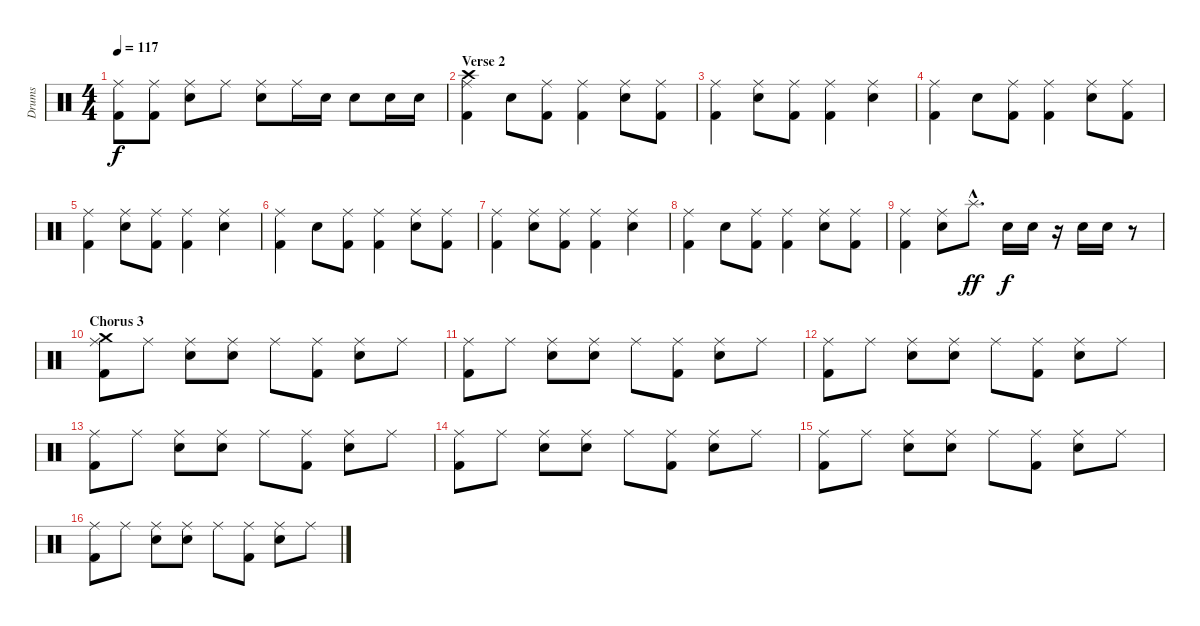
\track ("Drums" "Drums") {instrument percussion}
\staff {score}
\articulation defaults
\ts (4 4)
\tempo 117
\clef neutral
\ks c
("Ride (middle)" "Kick (hit) 2").8{dy f} ("Ride (middle)" "Kick (hit) 2").8 ("Ride (middle)" "Electric Snare (hit)").8 "Ride (middle)".8 ("Ride (middle)" "Electric Snare (hit)").8 "Ride (middle)".16 "Electric Snare (hit)".16 "Electric Snare (hit)".8 "Electric Snare (hit)".16 "Electric Snare (hit)".16 |
\section ("" "Verse 2")
("Ride (middle)" "Crash high (hit)" "Kick (hit) 2").4 "Electric Snare (hit)".8 ("Ride (middle)" "Kick (hit) 2").8 ("Ride (middle)" "Kick (hit) 2").4 ("Ride (middle)" "Electric Snare (hit)").8 ("Ride (middle)" "Kick (hit) 2").8 |
("Ride (middle)" "Kick (hit) 2").4 ("Ride (middle)" "Electric Snare (hit)").8 ("Ride (middle)" "Kick (hit) 2").8 ("Ride (middle)" "Kick (hit) 2").4 ("Ride (middle)" "Electric Snare (hit)").4 |
("Ride (middle)" "Kick (hit) 2").4 "Electric Snare (hit)".8 ("Ride (middle)" "Kick (hit) 2").8 ("Ride (middle)" "Kick (hit) 2").4 ("Ride (middle)" "Electric Snare (hit)").8 ("Ride (middle)" "Kick (hit) 2").8 |
("Ride (middle)" "Kick (hit) 2").4 ("Ride (middle)" "Electric Snare (hit)").8 ("Ride (middle)" "Kick (hit) 2").8 ("Ride (middle)" "Kick (hit) 2").4 ("Ride (middle)" "Electric Snare (hit)").4 |
("Ride (middle)" "Kick (hit) 2").4 "Electric Snare (hit)".8 ("Ride (middle)" "Kick (hit) 2").8 ("Ride (middle)" "Kick (hit) 2").4 ("Ride (middle)" "Electric Snare (hit)").8 ("Ride (middle)" "Kick (hit) 2").8 |
("Ride (middle)" "Kick (hit) 2").4 ("Ride (middle)" "Electric Snare (hit)").8 ("Ride (middle)" "Kick (hit) 2").8 ("Ride (middle)" "Kick (hit) 2").4 ("Ride (middle)" "Electric Snare (hit)").4 |
("Ride (middle)" "Kick (hit) 2").4 "Electric Snare (hit)".8 ("Ride (middle)" "Kick (hit) 2").8 ("Ride (middle)" "Kick (hit) 2").4 ("Ride (middle)" "Electric Snare (hit)").8 ("Ride (middle)" "Kick (hit) 2").8 |
("Ride (middle)" "Kick (hit) 2").4 ("Ride (middle)" "Electric Snare (hit)").8 "Splash (hit)"{hac}.8{d dy ff} "Electric Snare (hit)".16{dy f} "Electric Snare (hit)".16 r.16 "Electric Snare (hit)".16 "Electric Snare (hit)".16 r.8 |
\section ("" "Chorus 3")
("Ride (middle)" "Crash medium (hit)" "Kick (hit) 2").8 "Ride (middle)".8 ("Ride (middle)" "Electric Snare (hit)").8 ("Ride (middle)" "Electric Snare (hit)").8 "Ride (middle)".8 ("Ride (middle)" "Kick (hit) 2").8 ("Ride (middle)" "Electric Snare (hit)").8 "Ride (middle)".8 |
("Ride (middle)" "Kick (hit) 2").8 "Ride (middle)".8 ("Ride (middle)" "Electric Snare (hit)").8 ("Ride (middle)" "Electric Snare (hit)").8 "Ride (middle)".8 ("Ride (middle)" "Kick (hit) 2").8 ("Ride (middle)" "Electric Snare (hit)").8 "Ride (middle)".8 |
("Ride (middle)" "Kick (hit) 2").8 "Ride (middle)".8 ("Ride (middle)" "Electric Snare (hit)").8 ("Ride (middle)" "Electric Snare (hit)").8 "Ride (middle)".8 ("Ride (middle)" "Kick (hit) 2").8 ("Ride (middle)" "Electric Snare (hit)").8 "Ride (middle)".8 |
("Ride (middle)" "Kick (hit) 2").8 "Ride (middle)".8 ("Ride (middle)" "Electric Snare (hit)").8 ("Ride (middle)" "Electric Snare (hit)").8 "Ride (middle)".8 ("Ride (middle)" "Kick (hit) 2").8 ("Ride (middle)" "Electric Snare (hit)").8 "Ride (middle)".8 |
("Ride (middle)" "Kick (hit) 2").8 "Ride (middle)".8 ("Ride (middle)" "Electric Snare (hit)").8 ("Ride (middle)" "Electric Snare (hit)").8 "Ride (middle)".8 ("Ride (middle)" "Kick (hit) 2").8 ("Ride (middle)" "Electric Snare (hit)").8 "Ride (middle)".8 |
("Ride (middle)" "Kick (hit) 2").8 "Ride (middle)".8 ("Ride (middle)" "Electric Snare (hit)").8 ("Ride (middle)" "Electric Snare (hit)").8 "Ride (middle)".8 ("Ride (middle)" "Kick (hit) 2").8 ("Ride (middle)" "Electric Snare (hit)").8 "Ride (middle)".8 |
("Ride (middle)" "Kick (hit) 2").8 "Ride (middle)".8 ("Ride (middle)" "Electric Snare (hit)").8 ("Ride (middle)" "Electric Snare (hit)").8 "Ride (middle)".8 ("Ride (middle)" "Kick (hit) 2").8 ("Ride (middle)" "Electric Snare (hit)").8 "Ride (middle)".8
